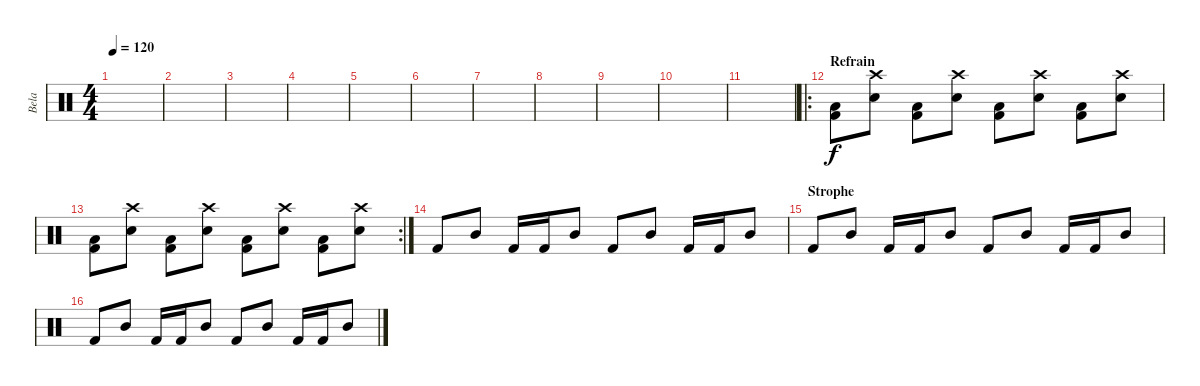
\track ("Bela" "Bela") {instrument percussion}
\staff {score}
\articulation defaults
\ts (4 4)
\tempo 120
\clef neutral
\ks c
|
|
|
|
|
|
|
|
|
|
|
\ro
\section ("" "Refrain")
("Low Tom (hit)" "Kick (hit) 2").8 ("Snare (hit) 2" "Crash high (hit)").8 ("Low Tom (hit)" "Kick (hit) 2").8 ("Snare (hit) 2" "Crash high (hit)").8 ("Low Tom (hit)" "Kick (hit) 2").8 ("Snare (hit) 2" "Crash high (hit)").8 ("Low Tom (hit)" "Kick (hit) 2").8 ("Snare (hit) 2" "Crash high (hit)").8 |
\rc 2
("Low Tom (hit)" "Kick (hit) 2").8 ("Snare (hit) 2" "Crash high (hit)").8 ("Low Tom (hit)" "Kick (hit) 2").8 ("Snare (hit) 2" "Crash high (hit)").8 ("Low Tom (hit)" "Kick (hit) 2").8 ("Snare (hit) 2" "Crash high (hit)").8 ("Low Tom (hit)" "Kick (hit) 2").8 ("Snare (hit) 2" "Crash high (hit)").8 |
"Kick (hit) 2".8 "Mid Tom (hit)".8 "Kick (hit) 2".16 "Kick (hit) 2".16 "Mid Tom (hit)".8 "Kick (hit) 2".8 "Mid Tom (hit)".8 "Kick (hit) 2".16 "Kick (hit) 2".16 "Mid Tom (hit)".8 |
\section ("" "Strophe")
"Kick (hit) 2".8 "Mid Tom (hit)".8 "Kick (hit) 2".16 "Kick (hit) 2".16 "Mid Tom (hit)".8 "Kick (hit) 2".8 "Mid Tom (hit)".8 "Kick (hit) 2".16 "Kick (hit) 2".16 "Mid Tom (hit)".8 |
"Kick (hit) 2".8 "Mid Tom (hit)".8 "Kick (hit) 2".16 "Kick (hit) 2".16 "Mid Tom (hit)".8 "Kick (hit) 2".8 "Mid Tom (hit)".8 "Kick (hit) 2".16 "Kick (hit) 2".16 "Mid Tom (hit)".8
